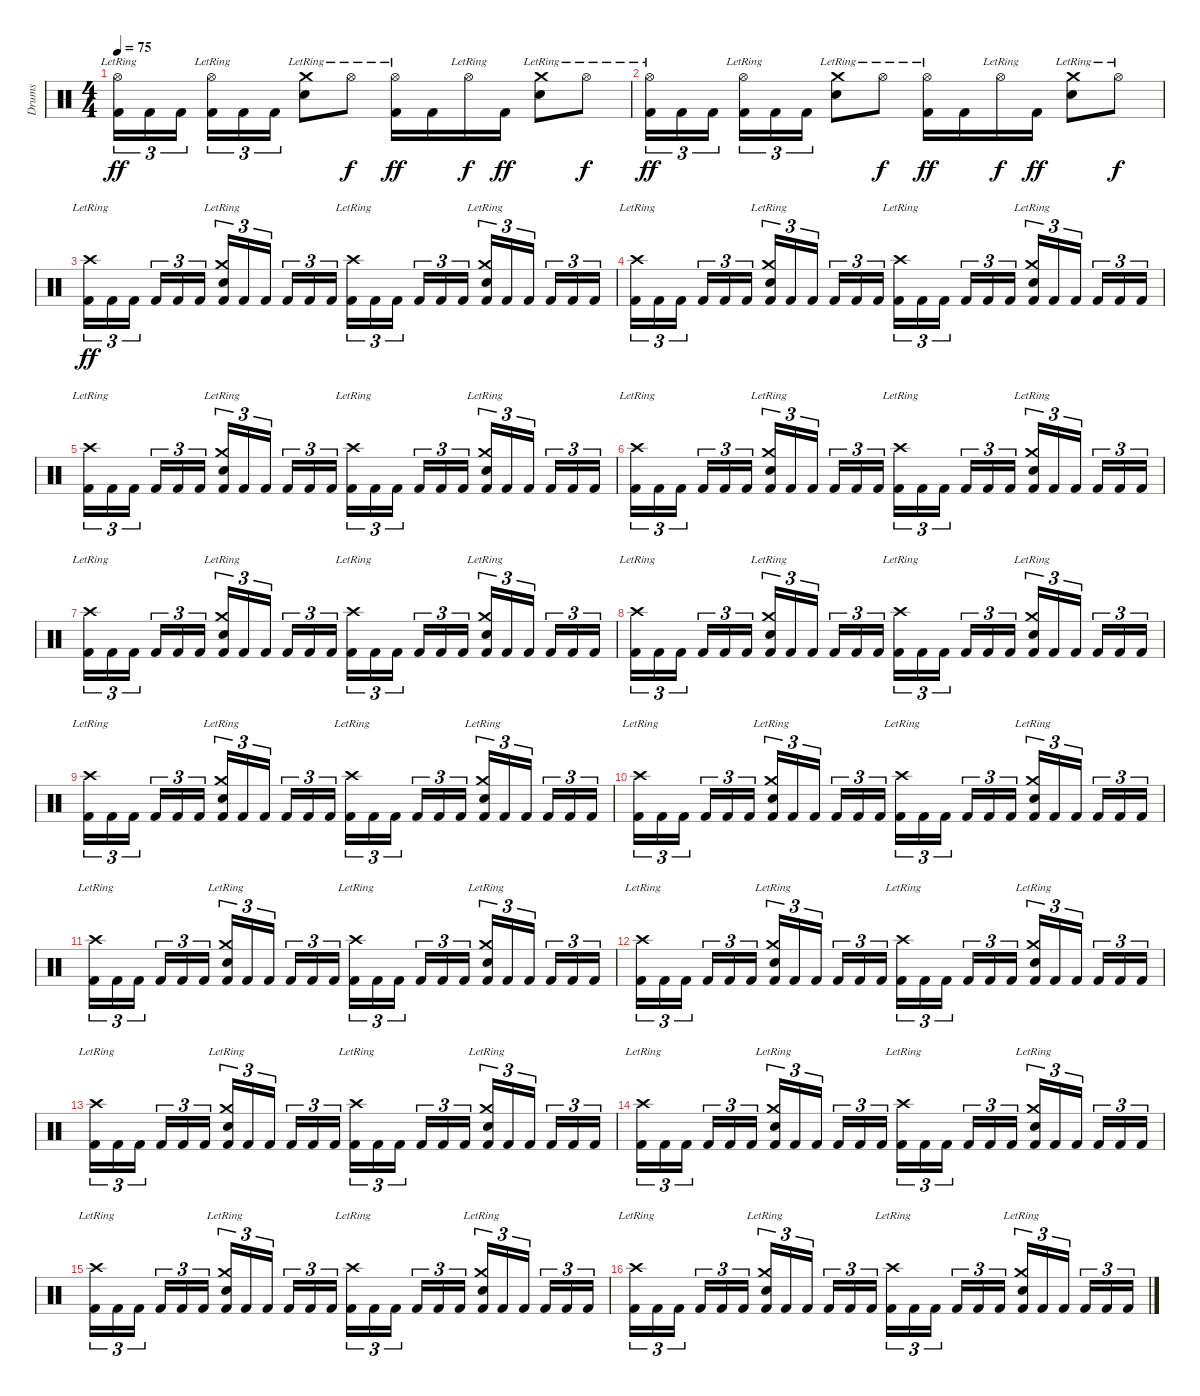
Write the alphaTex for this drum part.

\track ("Drums" "Drums") {instrument percussion}
\staff {score}
\articulation defaults
\ts (4 4)
\tempo 75
\clef neutral
\ks c
("Hi-Hat (open)"{lr} "Kick (hit) 2").16{tu (3 2) dy ff} "Kick (hit) 2".16{tu (3 2)} "Kick (hit) 2".16{tu (3 2)} ("Hi-Hat (open)"{lr} "Kick (hit) 2").16{tu (3 2)} "Kick (hit) 2".16{tu (3 2)} "Kick (hit) 2".16{tu (3 2)} ("Crash medium (hit)"{lr} "Snare (hit) 2").8 "Hi-Hat (open)"{lr}.8{dy f} ("Hi-Hat (open)"{lr} "Kick (hit) 2").16{dy ff} "Kick (hit) 2".16 "Hi-Hat (open)"{lr}.16{dy f} "Kick (hit) 2".16{dy ff} ("Crash medium (hit)"{lr} "Snare (hit) 2").8 "Hi-Hat (open)"{lr}.8{dy f} |
("Hi-Hat (open)"{lr} "Kick (hit) 2").16{tu (3 2) dy ff} "Kick (hit) 2".16{tu (3 2)} "Kick (hit) 2".16{tu (3 2)} ("Hi-Hat (open)"{lr} "Kick (hit) 2").16{tu (3 2)} "Kick (hit) 2".16{tu (3 2)} "Kick (hit) 2".16{tu (3 2)} ("Crash medium (hit)"{lr} "Snare (hit) 2").8 "Hi-Hat (open)"{lr}.8{dy f} ("Hi-Hat (open)"{lr} "Kick (hit) 2").16{dy ff} "Kick (hit) 2".16 "Hi-Hat (open)"{lr}.16{dy f} "Kick (hit) 2".16{dy ff} ("Crash medium (hit)"{lr} "Snare (hit) 2").8 "Hi-Hat (open)"{lr}.8{dy f} |
("Crash high (hit)"{lr} "Kick (hit) 2").16{tu (3 2) dy ff} "Kick (hit) 2".16{tu (3 2)} "Kick (hit) 2".16{tu (3 2)} "Kick (hit) 2".16{tu (3 2)} "Kick (hit) 2".16{tu (3 2)} "Kick (hit) 2".16{tu (3 2)} ("Crash medium (hit)"{lr} "Snare (hit) 2" "Kick (hit) 2").16{tu (3 2)} "Kick (hit) 2".16{tu (3 2)} "Kick (hit) 2".16{tu (3 2)} "Kick (hit) 2".16{tu (3 2)} "Kick (hit) 2".16{tu (3 2)} "Kick (hit) 2".16{tu (3 2)} ("Crash high (hit)"{lr} "Kick (hit) 2").16{tu (3 2)} "Kick (hit) 2".16{tu (3 2)} "Kick (hit) 2".16{tu (3 2)} "Kick (hit) 2".16{tu (3 2)} "Kick (hit) 2".16{tu (3 2)} "Kick (hit) 2".16{tu (3 2)} ("Crash medium (hit)"{lr} "Snare (hit) 2" "Kick (hit) 2").16{tu (3 2)} "Kick (hit) 2".16{tu (3 2)} "Kick (hit) 2".16{tu (3 2)} "Kick (hit) 2".16{tu (3 2)} "Kick (hit) 2".16{tu (3 2)} "Kick (hit) 2".16{tu (3 2)} |
("Crash high (hit)"{lr} "Kick (hit) 2").16{tu (3 2)} "Kick (hit) 2".16{tu (3 2)} "Kick (hit) 2".16{tu (3 2)} "Kick (hit) 2".16{tu (3 2)} "Kick (hit) 2".16{tu (3 2)} "Kick (hit) 2".16{tu (3 2)} ("Crash medium (hit)"{lr} "Snare (hit) 2" "Kick (hit) 2").16{tu (3 2)} "Kick (hit) 2".16{tu (3 2)} "Kick (hit) 2".16{tu (3 2)} "Kick (hit) 2".16{tu (3 2)} "Kick (hit) 2".16{tu (3 2)} "Kick (hit) 2".16{tu (3 2)} ("Crash high (hit)"{lr} "Kick (hit) 2").16{tu (3 2)} "Kick (hit) 2".16{tu (3 2)} "Kick (hit) 2".16{tu (3 2)} "Kick (hit) 2".16{tu (3 2)} "Kick (hit) 2".16{tu (3 2)} "Kick (hit) 2".16{tu (3 2)} ("Crash medium (hit)"{lr} "Snare (hit) 2" "Kick (hit) 2").16{tu (3 2)} "Kick (hit) 2".16{tu (3 2)} "Kick (hit) 2".16{tu (3 2)} "Kick (hit) 2".16{tu (3 2)} "Kick (hit) 2".16{tu (3 2)} "Kick (hit) 2".16{tu (3 2)} |
("Crash high (hit)"{lr} "Kick (hit) 2").16{tu (3 2)} "Kick (hit) 2".16{tu (3 2)} "Kick (hit) 2".16{tu (3 2)} "Kick (hit) 2".16{tu (3 2)} "Kick (hit) 2".16{tu (3 2)} "Kick (hit) 2".16{tu (3 2)} ("Crash medium (hit)"{lr} "Snare (hit) 2" "Kick (hit) 2").16{tu (3 2)} "Kick (hit) 2".16{tu (3 2)} "Kick (hit) 2".16{tu (3 2)} "Kick (hit) 2".16{tu (3 2)} "Kick (hit) 2".16{tu (3 2)} "Kick (hit) 2".16{tu (3 2)} ("Crash high (hit)"{lr} "Kick (hit) 2").16{tu (3 2)} "Kick (hit) 2".16{tu (3 2)} "Kick (hit) 2".16{tu (3 2)} "Kick (hit) 2".16{tu (3 2)} "Kick (hit) 2".16{tu (3 2)} "Kick (hit) 2".16{tu (3 2)} ("Crash medium (hit)"{lr} "Snare (hit) 2" "Kick (hit) 2").16{tu (3 2)} "Kick (hit) 2".16{tu (3 2)} "Kick (hit) 2".16{tu (3 2)} "Kick (hit) 2".16{tu (3 2)} "Kick (hit) 2".16{tu (3 2)} "Kick (hit) 2".16{tu (3 2)} |
("Crash high (hit)"{lr} "Kick (hit) 2").16{tu (3 2)} "Kick (hit) 2".16{tu (3 2)} "Kick (hit) 2".16{tu (3 2)} "Kick (hit) 2".16{tu (3 2)} "Kick (hit) 2".16{tu (3 2)} "Kick (hit) 2".16{tu (3 2)} ("Crash medium (hit)"{lr} "Snare (hit) 2" "Kick (hit) 2").16{tu (3 2)} "Kick (hit) 2".16{tu (3 2)} "Kick (hit) 2".16{tu (3 2)} "Kick (hit) 2".16{tu (3 2)} "Kick (hit) 2".16{tu (3 2)} "Kick (hit) 2".16{tu (3 2)} ("Crash high (hit)"{lr} "Kick (hit) 2").16{tu (3 2)} "Kick (hit) 2".16{tu (3 2)} "Kick (hit) 2".16{tu (3 2)} "Kick (hit) 2".16{tu (3 2)} "Kick (hit) 2".16{tu (3 2)} "Kick (hit) 2".16{tu (3 2)} ("Crash medium (hit)"{lr} "Snare (hit) 2" "Kick (hit) 2").16{tu (3 2)} "Kick (hit) 2".16{tu (3 2)} "Kick (hit) 2".16{tu (3 2)} "Kick (hit) 2".16{tu (3 2)} "Kick (hit) 2".16{tu (3 2)} "Kick (hit) 2".16{tu (3 2)} |
("Crash high (hit)"{lr} "Kick (hit) 2").16{tu (3 2)} "Kick (hit) 2".16{tu (3 2)} "Kick (hit) 2".16{tu (3 2)} "Kick (hit) 2".16{tu (3 2)} "Kick (hit) 2".16{tu (3 2)} "Kick (hit) 2".16{tu (3 2)} ("Crash medium (hit)"{lr} "Snare (hit) 2" "Kick (hit) 2").16{tu (3 2)} "Kick (hit) 2".16{tu (3 2)} "Kick (hit) 2".16{tu (3 2)} "Kick (hit) 2".16{tu (3 2)} "Kick (hit) 2".16{tu (3 2)} "Kick (hit) 2".16{tu (3 2)} ("Crash high (hit)"{lr} "Kick (hit) 2").16{tu (3 2)} "Kick (hit) 2".16{tu (3 2)} "Kick (hit) 2".16{tu (3 2)} "Kick (hit) 2".16{tu (3 2)} "Kick (hit) 2".16{tu (3 2)} "Kick (hit) 2".16{tu (3 2)} ("Crash medium (hit)"{lr} "Snare (hit) 2" "Kick (hit) 2").16{tu (3 2)} "Kick (hit) 2".16{tu (3 2)} "Kick (hit) 2".16{tu (3 2)} "Kick (hit) 2".16{tu (3 2)} "Kick (hit) 2".16{tu (3 2)} "Kick (hit) 2".16{tu (3 2)} |
("Crash high (hit)"{lr} "Kick (hit) 2").16{tu (3 2)} "Kick (hit) 2".16{tu (3 2)} "Kick (hit) 2".16{tu (3 2)} "Kick (hit) 2".16{tu (3 2)} "Kick (hit) 2".16{tu (3 2)} "Kick (hit) 2".16{tu (3 2)} ("Crash medium (hit)"{lr} "Snare (hit) 2" "Kick (hit) 2").16{tu (3 2)} "Kick (hit) 2".16{tu (3 2)} "Kick (hit) 2".16{tu (3 2)} "Kick (hit) 2".16{tu (3 2)} "Kick (hit) 2".16{tu (3 2)} "Kick (hit) 2".16{tu (3 2)} ("Crash high (hit)"{lr} "Kick (hit) 2").16{tu (3 2)} "Kick (hit) 2".16{tu (3 2)} "Kick (hit) 2".16{tu (3 2)} "Kick (hit) 2".16{tu (3 2)} "Kick (hit) 2".16{tu (3 2)} "Kick (hit) 2".16{tu (3 2)} ("Crash medium (hit)"{lr} "Snare (hit) 2" "Kick (hit) 2").16{tu (3 2)} "Kick (hit) 2".16{tu (3 2)} "Kick (hit) 2".16{tu (3 2)} "Kick (hit) 2".16{tu (3 2)} "Kick (hit) 2".16{tu (3 2)} "Kick (hit) 2".16{tu (3 2)} |
("Crash high (hit)"{lr} "Kick (hit) 2").16{tu (3 2)} "Kick (hit) 2".16{tu (3 2)} "Kick (hit) 2".16{tu (3 2)} "Kick (hit) 2".16{tu (3 2)} "Kick (hit) 2".16{tu (3 2)} "Kick (hit) 2".16{tu (3 2)} ("Crash medium (hit)"{lr} "Snare (hit) 2" "Kick (hit) 2").16{tu (3 2)} "Kick (hit) 2".16{tu (3 2)} "Kick (hit) 2".16{tu (3 2)} "Kick (hit) 2".16{tu (3 2)} "Kick (hit) 2".16{tu (3 2)} "Kick (hit) 2".16{tu (3 2)} ("Crash high (hit)"{lr} "Kick (hit) 2").16{tu (3 2)} "Kick (hit) 2".16{tu (3 2)} "Kick (hit) 2".16{tu (3 2)} "Kick (hit) 2".16{tu (3 2)} "Kick (hit) 2".16{tu (3 2)} "Kick (hit) 2".16{tu (3 2)} ("Crash medium (hit)"{lr} "Snare (hit) 2" "Kick (hit) 2").16{tu (3 2)} "Kick (hit) 2".16{tu (3 2)} "Kick (hit) 2".16{tu (3 2)} "Kick (hit) 2".16{tu (3 2)} "Kick (hit) 2".16{tu (3 2)} "Kick (hit) 2".16{tu (3 2)} |
("Crash high (hit)"{lr} "Kick (hit) 2").16{tu (3 2)} "Kick (hit) 2".16{tu (3 2)} "Kick (hit) 2".16{tu (3 2)} "Kick (hit) 2".16{tu (3 2)} "Kick (hit) 2".16{tu (3 2)} "Kick (hit) 2".16{tu (3 2)} ("Crash medium (hit)"{lr} "Snare (hit) 2" "Kick (hit) 2").16{tu (3 2)} "Kick (hit) 2".16{tu (3 2)} "Kick (hit) 2".16{tu (3 2)} "Kick (hit) 2".16{tu (3 2)} "Kick (hit) 2".16{tu (3 2)} "Kick (hit) 2".16{tu (3 2)} ("Crash high (hit)"{lr} "Kick (hit) 2").16{tu (3 2)} "Kick (hit) 2".16{tu (3 2)} "Kick (hit) 2".16{tu (3 2)} "Kick (hit) 2".16{tu (3 2)} "Kick (hit) 2".16{tu (3 2)} "Kick (hit) 2".16{tu (3 2)} ("Crash medium (hit)"{lr} "Snare (hit) 2" "Kick (hit) 2").16{tu (3 2)} "Kick (hit) 2".16{tu (3 2)} "Kick (hit) 2".16{tu (3 2)} "Kick (hit) 2".16{tu (3 2)} "Kick (hit) 2".16{tu (3 2)} "Kick (hit) 2".16{tu (3 2)} |
("Crash high (hit)"{lr} "Kick (hit) 2").16{tu (3 2)} "Kick (hit) 2".16{tu (3 2)} "Kick (hit) 2".16{tu (3 2)} "Kick (hit) 2".16{tu (3 2)} "Kick (hit) 2".16{tu (3 2)} "Kick (hit) 2".16{tu (3 2)} ("Crash medium (hit)"{lr} "Snare (hit) 2" "Kick (hit) 2").16{tu (3 2)} "Kick (hit) 2".16{tu (3 2)} "Kick (hit) 2".16{tu (3 2)} "Kick (hit) 2".16{tu (3 2)} "Kick (hit) 2".16{tu (3 2)} "Kick (hit) 2".16{tu (3 2)} ("Crash high (hit)"{lr} "Kick (hit) 2").16{tu (3 2)} "Kick (hit) 2".16{tu (3 2)} "Kick (hit) 2".16{tu (3 2)} "Kick (hit) 2".16{tu (3 2)} "Kick (hit) 2".16{tu (3 2)} "Kick (hit) 2".16{tu (3 2)} ("Crash medium (hit)"{lr} "Snare (hit) 2" "Kick (hit) 2").16{tu (3 2)} "Kick (hit) 2".16{tu (3 2)} "Kick (hit) 2".16{tu (3 2)} "Kick (hit) 2".16{tu (3 2)} "Kick (hit) 2".16{tu (3 2)} "Kick (hit) 2".16{tu (3 2)} |
("Crash high (hit)"{lr} "Kick (hit) 2").16{tu (3 2) volume 8} "Kick (hit) 2".16{tu (3 2)} "Kick (hit) 2".16{tu (3 2)} "Kick (hit) 2".16{tu (3 2)} "Kick (hit) 2".16{tu (3 2)} "Kick (hit) 2".16{tu (3 2)} ("Crash medium (hit)"{lr} "Snare (hit) 2" "Kick (hit) 2").16{tu (3 2)} "Kick (hit) 2".16{tu (3 2)} "Kick (hit) 2".16{tu (3 2)} "Kick (hit) 2".16{tu (3 2)} "Kick (hit) 2".16{tu (3 2)} "Kick (hit) 2".16{tu (3 2)} ("Crash high (hit)"{lr} "Kick (hit) 2").16{tu (3 2)} "Kick (hit) 2".16{tu (3 2)} "Kick (hit) 2".16{tu (3 2)} "Kick (hit) 2".16{tu (3 2)} "Kick (hit) 2".16{tu (3 2)} "Kick (hit) 2".16{tu (3 2)} ("Crash medium (hit)"{lr} "Snare (hit) 2" "Kick (hit) 2").16{tu (3 2)} "Kick (hit) 2".16{tu (3 2)} "Kick (hit) 2".16{tu (3 2)} "Kick (hit) 2".16{tu (3 2)} "Kick (hit) 2".16{tu (3 2)} "Kick (hit) 2".16{tu (3 2)} |
("Crash high (hit)"{lr} "Kick (hit) 2").16{tu (3 2)} "Kick (hit) 2".16{tu (3 2)} "Kick (hit) 2".16{tu (3 2)} "Kick (hit) 2".16{tu (3 2)} "Kick (hit) 2".16{tu (3 2)} "Kick (hit) 2".16{tu (3 2)} ("Crash medium (hit)"{lr} "Snare (hit) 2" "Kick (hit) 2").16{tu (3 2)} "Kick (hit) 2".16{tu (3 2)} "Kick (hit) 2".16{tu (3 2)} "Kick (hit) 2".16{tu (3 2)} "Kick (hit) 2".16{tu (3 2)} "Kick (hit) 2".16{tu (3 2)} ("Crash high (hit)"{lr} "Kick (hit) 2").16{tu (3 2)} "Kick (hit) 2".16{tu (3 2)} "Kick (hit) 2".16{tu (3 2)} "Kick (hit) 2".16{tu (3 2)} "Kick (hit) 2".16{tu (3 2)} "Kick (hit) 2".16{tu (3 2)} ("Crash medium (hit)"{lr} "Snare (hit) 2" "Kick (hit) 2").16{tu (3 2)} "Kick (hit) 2".16{tu (3 2)} "Kick (hit) 2".16{tu (3 2)} "Kick (hit) 2".16{tu (3 2)} "Kick (hit) 2".16{tu (3 2)} "Kick (hit) 2".16{tu (3 2)} |
("Crash high (hit)"{lr} "Kick (hit) 2").16{tu (3 2)} "Kick (hit) 2".16{tu (3 2)} "Kick (hit) 2".16{tu (3 2)} "Kick (hit) 2".16{tu (3 2)} "Kick (hit) 2".16{tu (3 2)} "Kick (hit) 2".16{tu (3 2)} ("Crash medium (hit)"{lr} "Snare (hit) 2" "Kick (hit) 2").16{tu (3 2)} "Kick (hit) 2".16{tu (3 2)} "Kick (hit) 2".16{tu (3 2)} "Kick (hit) 2".16{tu (3 2)} "Kick (hit) 2".16{tu (3 2)} "Kick (hit) 2".16{tu (3 2)} ("Crash high (hit)"{lr} "Kick (hit) 2").16{tu (3 2)} "Kick (hit) 2".16{tu (3 2)} "Kick (hit) 2".16{tu (3 2)} "Kick (hit) 2".16{tu (3 2)} "Kick (hit) 2".16{tu (3 2)} "Kick (hit) 2".16{tu (3 2)} ("Crash medium (hit)"{lr} "Snare (hit) 2" "Kick (hit) 2").16{tu (3 2)} "Kick (hit) 2".16{tu (3 2)} "Kick (hit) 2".16{tu (3 2)} "Kick (hit) 2".16{tu (3 2)} "Kick (hit) 2".16{tu (3 2)} "Kick (hit) 2".16{tu (3 2)} |
("Crash high (hit)"{lr} "Kick (hit) 2").16{tu (3 2)} "Kick (hit) 2".16{tu (3 2)} "Kick (hit) 2".16{tu (3 2)} "Kick (hit) 2".16{tu (3 2)} "Kick (hit) 2".16{tu (3 2)} "Kick (hit) 2".16{tu (3 2)} ("Crash medium (hit)"{lr} "Snare (hit) 2" "Kick (hit) 2").16{tu (3 2)} "Kick (hit) 2".16{tu (3 2)} "Kick (hit) 2".16{tu (3 2)} "Kick (hit) 2".16{tu (3 2)} "Kick (hit) 2".16{tu (3 2)} "Kick (hit) 2".16{tu (3 2)} ("Crash high (hit)"{lr} "Kick (hit) 2").16{tu (3 2)} "Kick (hit) 2".16{tu (3 2)} "Kick (hit) 2".16{tu (3 2)} "Kick (hit) 2".16{tu (3 2)} "Kick (hit) 2".16{tu (3 2)} "Kick (hit) 2".16{tu (3 2)} ("Crash medium (hit)"{lr} "Snare (hit) 2" "Kick (hit) 2").16{tu (3 2)} "Kick (hit) 2".16{tu (3 2)} "Kick (hit) 2".16{tu (3 2)} "Kick (hit) 2".16{tu (3 2)} "Kick (hit) 2".16{tu (3 2)} "Kick (hit) 2".16{tu (3 2)} |
("Crash high (hit)"{lr} "Kick (hit) 2").16{tu (3 2) volume 0} "Kick (hit) 2".16{tu (3 2)} "Kick (hit) 2".16{tu (3 2)} "Kick (hit) 2".16{tu (3 2)} "Kick (hit) 2".16{tu (3 2)} "Kick (hit) 2".16{tu (3 2)} ("Crash medium (hit)"{lr} "Snare (hit) 2" "Kick (hit) 2").16{tu (3 2)} "Kick (hit) 2".16{tu (3 2)} "Kick (hit) 2".16{tu (3 2)} "Kick (hit) 2".16{tu (3 2)} "Kick (hit) 2".16{tu (3 2)} "Kick (hit) 2".16{tu (3 2)} ("Crash high (hit)"{lr} "Kick (hit) 2").16{tu (3 2)} "Kick (hit) 2".16{tu (3 2)} "Kick (hit) 2".16{tu (3 2)} "Kick (hit) 2".16{tu (3 2)} "Kick (hit) 2".16{tu (3 2)} "Kick (hit) 2".16{tu (3 2)} ("Crash medium (hit)"{lr} "Snare (hit) 2" "Kick (hit) 2").16{tu (3 2)} "Kick (hit) 2".16{tu (3 2)} "Kick (hit) 2".16{tu (3 2)} "Kick (hit) 2".16{tu (3 2)} "Kick (hit) 2".16{tu (3 2)} "Kick (hit) 2".16{tu (3 2)}
